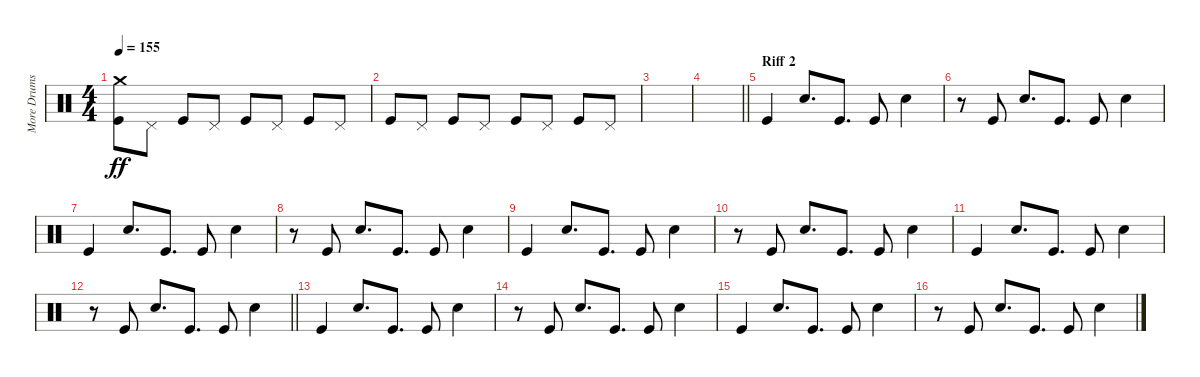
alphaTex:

\track ("More Drums" "More Drums") {instrument percussion}
\staff {score}
\articulation defaults
\ts (4 4)
\tempo 155
\clef neutral
\ks c
("Kick (hit)" "Crash medium (hit)").8{dy ff} "Pedal Hi-Hat (hit)".8 "Kick (hit)".8 "Pedal Hi-Hat (hit)".8 "Kick (hit)".8 "Pedal Hi-Hat (hit)".8 "Kick (hit)".8 "Pedal Hi-Hat (hit)".8 |
"Kick (hit)".8 "Pedal Hi-Hat (hit)".8 "Kick (hit)".8 "Pedal Hi-Hat (hit)".8 "Kick (hit)".8 "Pedal Hi-Hat (hit)".8 "Kick (hit)".8 "Pedal Hi-Hat (hit)".8 |
|
\barLineRight lightlight
|
\section ("" "Riff 2")
"Kick (hit)".4 "Electric Snare (hit)".8{d} "Kick (hit)".8{d} "Kick (hit)".8 "Electric Snare (hit)".4 |
r.8 "Kick (hit)".8 "Electric Snare (hit)".8{d} "Kick (hit)".8{d} "Kick (hit)".8 "Electric Snare (hit)".4 |
"Kick (hit)".4 "Electric Snare (hit)".8{d} "Kick (hit)".8{d} "Kick (hit)".8 "Electric Snare (hit)".4 |
r.8 "Kick (hit)".8 "Electric Snare (hit)".8{d} "Kick (hit)".8{d} "Kick (hit)".8 "Electric Snare (hit)".4 |
"Kick (hit)".4 "Electric Snare (hit)".8{d} "Kick (hit)".8{d} "Kick (hit)".8 "Electric Snare (hit)".4 |
r.8 "Kick (hit)".8 "Electric Snare (hit)".8{d} "Kick (hit)".8{d} "Kick (hit)".8 "Electric Snare (hit)".4 |
"Kick (hit)".4 "Electric Snare (hit)".8{d} "Kick (hit)".8{d} "Kick (hit)".8 "Electric Snare (hit)".4 |
\barLineRight lightlight
r.8 "Kick (hit)".8 "Electric Snare (hit)".8{d} "Kick (hit)".8{d} "Kick (hit)".8 "Electric Snare (hit)".4 |
"Kick (hit)".4 "Electric Snare (hit)".8{d} "Kick (hit)".8{d} "Kick (hit)".8 "Electric Snare (hit)".4 |
r.8 "Kick (hit)".8 "Electric Snare (hit)".8{d} "Kick (hit)".8{d} "Kick (hit)".8 "Electric Snare (hit)".4 |
"Kick (hit)".4 "Electric Snare (hit)".8{d} "Kick (hit)".8{d} "Kick (hit)".8 "Electric Snare (hit)".4 |
r.8 "Kick (hit)".8 "Electric Snare (hit)".8{d} "Kick (hit)".8{d} "Kick (hit)".8 "Electric Snare (hit)".4
